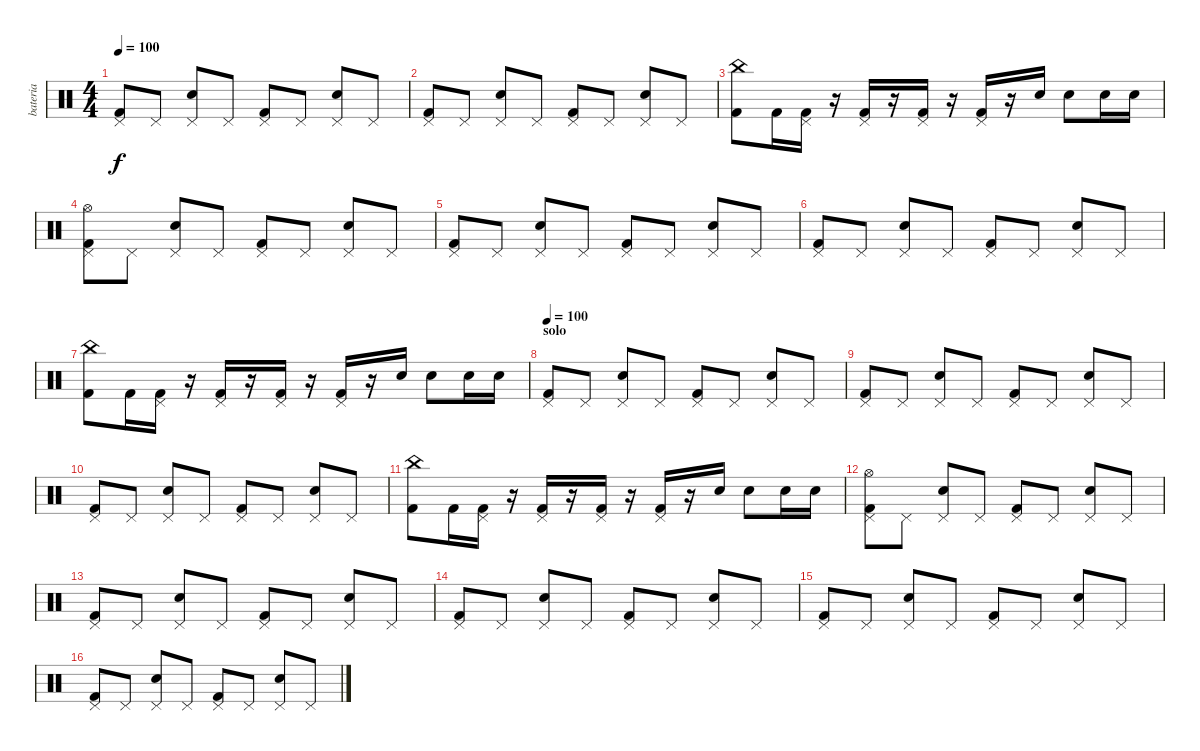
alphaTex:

\track ("bateria" "bateria") {instrument percussion}
\staff {score}
\articulation defaults
\ts (4 4)
\tempo 100
\clef neutral
\ks c
("Pedal Hi-Hat (hit)" "Kick (hit) 2").8{dy f} "Pedal Hi-Hat (hit)".8 ("Pedal Hi-Hat (hit)" "Snare (hit) 2").8 "Pedal Hi-Hat (hit)".8 ("Pedal Hi-Hat (hit)" "Kick (hit) 2").8 "Pedal Hi-Hat (hit)".8 ("Pedal Hi-Hat (hit)" "Snare (hit) 2").8 "Pedal Hi-Hat (hit)".8 |
("Pedal Hi-Hat (hit)" "Kick (hit) 2").8 "Pedal Hi-Hat (hit)".8 ("Pedal Hi-Hat (hit)" "Snare (hit) 2").8 "Pedal Hi-Hat (hit)".8 ("Pedal Hi-Hat (hit)" "Kick (hit) 2").8 "Pedal Hi-Hat (hit)".8 ("Pedal Hi-Hat (hit)" "Snare (hit) 2").8 "Pedal Hi-Hat (hit)".8 |
("China (hit)" "Kick (hit) 2").8 "Kick (hit) 2".16 ("Pedal Hi-Hat (hit)" "Kick (hit) 2").16 r.16 ("Pedal Hi-Hat (hit)" "Kick (hit) 2").16 r.16 ("Pedal Hi-Hat (hit)" "Kick (hit) 2").16 r.16 ("Pedal Hi-Hat (hit)" "Kick (hit) 2").16 r.16 "Snare (hit) 2".16 "Snare (hit) 2".8 "Snare (hit) 2".16 "Snare (hit) 2".16 |
("Pedal Hi-Hat (hit)" "Kick (hit) 2" "Hi-Hat (open)").8 "Pedal Hi-Hat (hit)".8 ("Pedal Hi-Hat (hit)" "Snare (hit) 2").8 "Pedal Hi-Hat (hit)".8 ("Pedal Hi-Hat (hit)" "Kick (hit) 2").8 "Pedal Hi-Hat (hit)".8 ("Pedal Hi-Hat (hit)" "Snare (hit) 2").8 "Pedal Hi-Hat (hit)".8 |
("Pedal Hi-Hat (hit)" "Kick (hit) 2").8 "Pedal Hi-Hat (hit)".8 ("Pedal Hi-Hat (hit)" "Snare (hit) 2").8 "Pedal Hi-Hat (hit)".8 ("Pedal Hi-Hat (hit)" "Kick (hit) 2").8 "Pedal Hi-Hat (hit)".8 ("Pedal Hi-Hat (hit)" "Snare (hit) 2").8 "Pedal Hi-Hat (hit)".8 |
("Pedal Hi-Hat (hit)" "Kick (hit) 2").8 "Pedal Hi-Hat (hit)".8 ("Pedal Hi-Hat (hit)" "Snare (hit) 2").8 "Pedal Hi-Hat (hit)".8 ("Pedal Hi-Hat (hit)" "Kick (hit) 2").8 "Pedal Hi-Hat (hit)".8 ("Pedal Hi-Hat (hit)" "Snare (hit) 2").8 "Pedal Hi-Hat (hit)".8 |
("China (hit)" "Kick (hit) 2").8 "Kick (hit) 2".16 ("Pedal Hi-Hat (hit)" "Kick (hit) 2").16 r.16 ("Pedal Hi-Hat (hit)" "Kick (hit) 2").16 r.16 ("Pedal Hi-Hat (hit)" "Kick (hit) 2").16 r.16 ("Pedal Hi-Hat (hit)" "Kick (hit) 2").16 r.16 "Snare (hit) 2".16 "Snare (hit) 2".8 "Snare (hit) 2".16 "Snare (hit) 2".16 |
\section ("" "solo")
\tempo 100
("Pedal Hi-Hat (hit)" "Kick (hit) 2").8 "Pedal Hi-Hat (hit)".8 ("Pedal Hi-Hat (hit)" "Snare (hit) 2").8 "Pedal Hi-Hat (hit)".8 ("Pedal Hi-Hat (hit)" "Kick (hit) 2").8 "Pedal Hi-Hat (hit)".8 ("Pedal Hi-Hat (hit)" "Snare (hit) 2").8 "Pedal Hi-Hat (hit)".8 |
("Pedal Hi-Hat (hit)" "Kick (hit) 2").8 "Pedal Hi-Hat (hit)".8 ("Pedal Hi-Hat (hit)" "Snare (hit) 2").8 "Pedal Hi-Hat (hit)".8 ("Pedal Hi-Hat (hit)" "Kick (hit) 2").8 "Pedal Hi-Hat (hit)".8 ("Pedal Hi-Hat (hit)" "Snare (hit) 2").8 "Pedal Hi-Hat (hit)".8 |
("Pedal Hi-Hat (hit)" "Kick (hit) 2").8 "Pedal Hi-Hat (hit)".8 ("Pedal Hi-Hat (hit)" "Snare (hit) 2").8 "Pedal Hi-Hat (hit)".8 ("Pedal Hi-Hat (hit)" "Kick (hit) 2").8 "Pedal Hi-Hat (hit)".8 ("Pedal Hi-Hat (hit)" "Snare (hit) 2").8 "Pedal Hi-Hat (hit)".8 |
("China (hit)" "Kick (hit) 2").8 "Kick (hit) 2".16 ("Pedal Hi-Hat (hit)" "Kick (hit) 2").16 r.16 ("Pedal Hi-Hat (hit)" "Kick (hit) 2").16 r.16 ("Pedal Hi-Hat (hit)" "Kick (hit) 2").16 r.16 ("Pedal Hi-Hat (hit)" "Kick (hit) 2").16 r.16 "Snare (hit) 2".16 "Snare (hit) 2".8 "Snare (hit) 2".16 "Snare (hit) 2".16 |
("Pedal Hi-Hat (hit)" "Kick (hit) 2" "Hi-Hat (open)").8 "Pedal Hi-Hat (hit)".8 ("Pedal Hi-Hat (hit)" "Snare (hit) 2").8 "Pedal Hi-Hat (hit)".8 ("Pedal Hi-Hat (hit)" "Kick (hit) 2").8 "Pedal Hi-Hat (hit)".8 ("Pedal Hi-Hat (hit)" "Snare (hit) 2").8 "Pedal Hi-Hat (hit)".8 |
("Pedal Hi-Hat (hit)" "Kick (hit) 2").8 "Pedal Hi-Hat (hit)".8 ("Pedal Hi-Hat (hit)" "Snare (hit) 2").8 "Pedal Hi-Hat (hit)".8 ("Pedal Hi-Hat (hit)" "Kick (hit) 2").8 "Pedal Hi-Hat (hit)".8 ("Pedal Hi-Hat (hit)" "Snare (hit) 2").8 "Pedal Hi-Hat (hit)".8 |
("Pedal Hi-Hat (hit)" "Kick (hit) 2").8 "Pedal Hi-Hat (hit)".8 ("Pedal Hi-Hat (hit)" "Snare (hit) 2").8 "Pedal Hi-Hat (hit)".8 ("Pedal Hi-Hat (hit)" "Kick (hit) 2").8 "Pedal Hi-Hat (hit)".8 ("Pedal Hi-Hat (hit)" "Snare (hit) 2").8 "Pedal Hi-Hat (hit)".8 |
("Pedal Hi-Hat (hit)" "Kick (hit) 2").8 "Pedal Hi-Hat (hit)".8 ("Pedal Hi-Hat (hit)" "Snare (hit) 2").8 "Pedal Hi-Hat (hit)".8 ("Pedal Hi-Hat (hit)" "Kick (hit) 2").8 "Pedal Hi-Hat (hit)".8 ("Pedal Hi-Hat (hit)" "Snare (hit) 2").8 "Pedal Hi-Hat (hit)".8 |
("Pedal Hi-Hat (hit)" "Kick (hit) 2").8 "Pedal Hi-Hat (hit)".8 ("Pedal Hi-Hat (hit)" "Snare (hit) 2").8 "Pedal Hi-Hat (hit)".8 ("Pedal Hi-Hat (hit)" "Kick (hit) 2").8 "Pedal Hi-Hat (hit)".8 ("Pedal Hi-Hat (hit)" "Snare (hit) 2").8 "Pedal Hi-Hat (hit)".8
